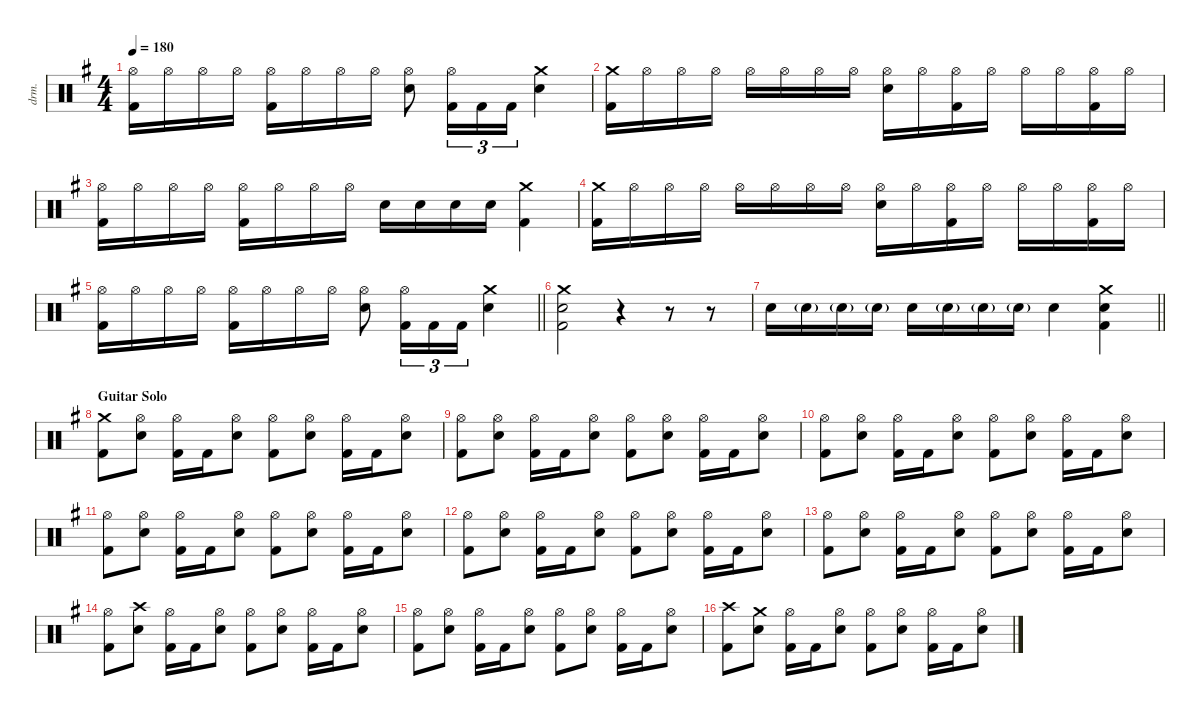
\defaultSystemsLayout 4
\hideDynamics
\bracketExtendMode nobrackets
\otherSystemsTrackNameOrientation horizontal
\track ("Lars Ulrich" "drm.") {instrument percussion}
\staff {score}
\articulation defaults
\ts (4 4)
\tempo 180
\clef neutral
\ks eminor
("Hi-Hat (open)"{acc forcenatural} "Kick (hit) 2"{acc forcenatural}).16{dy f beam Down} "Hi-Hat (open)"{acc forcenatural}.16{beam Down} "Hi-Hat (open)"{acc forcenatural}.16{beam Down} "Hi-Hat (open)"{acc forcenatural}.16{beam Down} ("Hi-Hat (open)"{acc forcenatural} "Kick (hit) 2"{acc forcenatural}).16{beam Down} "Hi-Hat (open)"{acc forcenatural}.16{beam Down} "Hi-Hat (open)"{acc forcenatural}.16{beam Down} "Hi-Hat (open)"{acc forcenatural}.16{beam Down} ("Hi-Hat (open)"{acc forcenatural} "Snare (hit) 2"{acc forcenatural}).8{beam Down} ("Hi-Hat (open)"{acc forcenatural} "Kick (hit) 2"{acc forcenatural}).16{tu (3 2) beam Down} "Kick (hit) 2"{acc forcenatural}.16{tu (3 2) beam Down} "Kick (hit) 2"{acc forcenatural}.16{tu (3 2) beam Down} ("Crash medium (hit)"{acc forcenatural} "Snare (hit) 2"{acc forcenatural}).4{beam Down} |
("Crash medium (hit)"{acc forcenatural} "Kick (hit) 2"{acc forcenatural}).16{beam Down} "Hi-Hat (open)"{acc forcenatural}.16{beam Down} "Hi-Hat (open)"{acc forcenatural}.16{beam Down} "Hi-Hat (open)"{acc forcenatural}.16{beam Down} "Hi-Hat (open)"{acc forcenatural}.16{beam Down} "Hi-Hat (open)"{acc forcenatural}.16{beam Down} "Hi-Hat (open)"{acc forcenatural}.16{beam Down} "Hi-Hat (open)"{acc forcenatural}.16{beam Down} ("Hi-Hat (open)"{acc forcenatural} "Snare (hit) 2"{acc forcenatural}).16{beam Down} "Hi-Hat (open)"{acc forcenatural}.16{beam Down} ("Hi-Hat (open)"{acc forcenatural} "Kick (hit) 2"{acc forcenatural}).16{beam Down} "Hi-Hat (open)"{acc forcenatural}.16{beam Down} "Hi-Hat (open)"{acc forcenatural}.16{beam Down} "Hi-Hat (open)"{acc forcenatural}.16{beam Down} ("Hi-Hat (open)"{acc forcenatural} "Kick (hit) 2"{acc forcenatural}).16{beam Down} "Hi-Hat (open)"{acc forcenatural}.16{beam Down} |
("Hi-Hat (open)"{acc forcenatural} "Kick (hit) 2"{acc forcenatural}).16{beam Down} "Hi-Hat (open)"{acc forcenatural}.16{beam Down} "Hi-Hat (open)"{acc forcenatural}.16{beam Down} "Hi-Hat (open)"{acc forcenatural}.16{beam Down} ("Hi-Hat (open)"{acc forcenatural} "Kick (hit) 2"{acc forcenatural}).16{beam Down} "Hi-Hat (open)"{acc forcenatural}.16{beam Down} "Hi-Hat (open)"{acc forcenatural}.16{beam Down} "Hi-Hat (open)"{acc forcenatural}.16{beam Down} "Snare (hit) 2"{acc forcenatural}.16{beam Down} "Snare (hit) 2"{acc forcenatural}.16{beam Down} "Snare (hit) 2"{acc forcenatural}.16{beam Down} "Snare (hit) 2"{acc forcenatural}.16{beam Down} ("Crash medium (hit)"{acc forcenatural} "Kick (hit) 2"{acc forcenatural}).4{beam Down} |
("Crash medium (hit)"{acc forcenatural} "Kick (hit) 2"{acc forcenatural}).16{beam Down} "Hi-Hat (open)"{acc forcenatural}.16{beam Down} "Hi-Hat (open)"{acc forcenatural}.16{beam Down} "Hi-Hat (open)"{acc forcenatural}.16{beam Down} "Hi-Hat (open)"{acc forcenatural}.16{beam Down} "Hi-Hat (open)"{acc forcenatural}.16{beam Down} "Hi-Hat (open)"{acc forcenatural}.16{beam Down} "Hi-Hat (open)"{acc forcenatural}.16{beam Down} ("Hi-Hat (open)"{acc forcenatural} "Snare (hit) 2"{acc forcenatural}).16{beam Down} "Hi-Hat (open)"{acc forcenatural}.16{beam Down} ("Hi-Hat (open)"{acc forcenatural} "Kick (hit) 2"{acc forcenatural}).16{beam Down} "Hi-Hat (open)"{acc forcenatural}.16{beam Down} "Hi-Hat (open)"{acc forcenatural}.16{beam Down} "Hi-Hat (open)"{acc forcenatural}.16{beam Down} ("Hi-Hat (open)"{acc forcenatural} "Kick (hit) 2"{acc forcenatural}).16{beam Down} "Hi-Hat (open)"{acc forcenatural}.16{beam Down} |
\barLineRight lightlight
("Hi-Hat (open)"{acc forcenatural} "Kick (hit) 2"{acc forcenatural}).16{beam Down} "Hi-Hat (open)"{acc forcenatural}.16{beam Down} "Hi-Hat (open)"{acc forcenatural}.16{beam Down} "Hi-Hat (open)"{acc forcenatural}.16{beam Down} ("Hi-Hat (open)"{acc forcenatural} "Kick (hit) 2"{acc forcenatural}).16{beam Down} "Hi-Hat (open)"{acc forcenatural}.16{beam Down} "Hi-Hat (open)"{acc forcenatural}.16{beam Down} "Hi-Hat (open)"{acc forcenatural}.16{beam Down} ("Hi-Hat (open)"{acc forcenatural} "Snare (hit) 2"{acc forcenatural}).8{beam Down} ("Hi-Hat (open)"{acc forcenatural} "Kick (hit) 2"{acc forcenatural}).16{tu (3 2) beam Down} "Kick (hit) 2"{acc forcenatural}.16{tu (3 2) beam Down} "Kick (hit) 2"{acc forcenatural}.16{tu (3 2) beam Down} ("Crash medium (hit)"{acc forcenatural} "Snare (hit) 2"{acc forcenatural}).4{beam Down} |
("Crash medium (hit)"{acc forcenatural} "Snare (hit) 2"{acc forcenatural} "Kick (hit) 2"{acc forcenatural}).2{beam Down} r.4{beam Down} r.8{beam Down} r.8{beam Down} |
\barLineRight lightlight "Snare (hit) 2"{acc forcenatural}.16{beam Down} "Snare (hit) 2"{g acc forcenatural}.16{dy ff beam Down} "Snare (hit) 2"{g acc forcenatural}.16{beam Down} "Snare (hit) 2"{g acc forcenatural}.16{beam Down} "Snare (hit) 2"{acc forcenatural}.16{dy f beam Down} "Snare (hit) 2"{g acc forcenatural}.16{dy ff beam Down} "Snare (hit) 2"{g acc forcenatural}.16{beam Down} "Snare (hit) 2"{g acc forcenatural}.16{beam Down} "Snare (hit) 2"{acc forcenatural}.4{dy f beam Down}
("Crash medium (hit)"{acc forcenatural} "Snare (hit) 2"{acc forcenatural} "Kick (hit) 2"{acc forcenatural}).4{beam Down} |
\section ("" "Guitar Solo")
("Crash medium (hit)"{acc forcenatural} "Kick (hit) 2"{acc forcenatural}).8{beam Down} ("Hi-Hat (open)"{acc forcenatural} "Snare (hit) 2"{acc forcenatural}).8{beam Down} ("Hi-Hat (open)"{acc forcenatural} "Kick (hit) 2"{acc forcenatural}).16{beam Down} "Kick (hit) 2"{acc forcenatural}.16{beam Down} ("Hi-Hat (open)"{acc forcenatural} "Snare (hit) 2"{acc forcenatural}).8{beam Down} ("Hi-Hat (open)"{acc forcenatural} "Kick (hit) 2"{acc forcenatural}).8{beam Down} ("Hi-Hat (open)"{acc forcenatural} "Snare (hit) 2"{acc forcenatural}).8{beam Down} ("Hi-Hat (open)"{acc forcenatural} "Kick (hit) 2"{acc forcenatural}).16{beam Down} "Kick (hit) 2"{acc forcenatural}.16{beam Down} ("Hi-Hat (open)"{acc forcenatural} "Snare (hit) 2"{acc forcenatural}).8{beam Down} |
("Hi-Hat (open)"{acc forcenatural} "Kick (hit) 2"{acc forcenatural}).8{beam Down} ("Hi-Hat (open)"{acc forcenatural} "Snare (hit) 2"{acc forcenatural}).8{beam Down} ("Hi-Hat (open)"{acc forcenatural} "Kick (hit) 2"{acc forcenatural}).16{beam Down} "Kick (hit) 2"{acc forcenatural}.16{beam Down} ("Hi-Hat (open)"{acc forcenatural} "Snare (hit) 2"{acc forcenatural}).8{beam Down} ("Hi-Hat (open)"{acc forcenatural} "Kick (hit) 2"{acc forcenatural}).8{beam Down} ("Hi-Hat (open)"{acc forcenatural} "Snare (hit) 2"{acc forcenatural}).8{beam Down} ("Hi-Hat (open)"{acc forcenatural} "Kick (hit) 2"{acc forcenatural}).16{beam Down} "Kick (hit) 2"{acc forcenatural}.16{beam Down} ("Hi-Hat (open)"{acc forcenatural} "Snare (hit) 2"{acc forcenatural}).8{beam Down} |
("Hi-Hat (open)"{acc forcenatural} "Kick (hit) 2"{acc forcenatural}).8{beam Down} ("Hi-Hat (open)"{acc forcenatural} "Snare (hit) 2"{acc forcenatural}).8{beam Down} ("Hi-Hat (open)"{acc forcenatural} "Kick (hit) 2"{acc forcenatural}).16{beam Down} "Kick (hit) 2"{acc forcenatural}.16{beam Down} ("Hi-Hat (open)"{acc forcenatural} "Snare (hit) 2"{acc forcenatural}).8{beam Down} ("Hi-Hat (open)"{acc forcenatural} "Kick (hit) 2"{acc forcenatural}).8{beam Down} ("Hi-Hat (open)"{acc forcenatural} "Snare (hit) 2"{acc forcenatural}).8{beam Down} ("Hi-Hat (open)"{acc forcenatural} "Kick (hit) 2"{acc forcenatural}).16{beam Down} "Kick (hit) 2"{acc forcenatural}.16{beam Down} ("Hi-Hat (open)"{acc forcenatural} "Snare (hit) 2"{acc forcenatural}).8{beam Down} |
("Hi-Hat (open)"{acc forcenatural} "Kick (hit) 2"{acc forcenatural}).8{beam Down} ("Hi-Hat (open)"{acc forcenatural} "Snare (hit) 2"{acc forcenatural}).8{beam Down} ("Hi-Hat (open)"{acc forcenatural} "Kick (hit) 2"{acc forcenatural}).16{beam Down} "Kick (hit) 2"{acc forcenatural}.16{beam Down} ("Hi-Hat (open)"{acc forcenatural} "Snare (hit) 2"{acc forcenatural}).8{beam Down} ("Hi-Hat (open)"{acc forcenatural} "Kick (hit) 2"{acc forcenatural}).8{beam Down} ("Hi-Hat (open)"{acc forcenatural} "Snare (hit) 2"{acc forcenatural}).8{beam Down} ("Hi-Hat (open)"{acc forcenatural} "Kick (hit) 2"{acc forcenatural}).16{beam Down} "Kick (hit) 2"{acc forcenatural}.16{beam Down} ("Hi-Hat (open)"{acc forcenatural} "Snare (hit) 2"{acc forcenatural}).8{beam Down} |
("Hi-Hat (open)"{acc forcenatural} "Kick (hit) 2"{acc forcenatural}).8{beam Down} ("Hi-Hat (open)"{acc forcenatural} "Snare (hit) 2"{acc forcenatural}).8{beam Down} ("Hi-Hat (open)"{acc forcenatural} "Kick (hit) 2"{acc forcenatural}).16{beam Down} "Kick (hit) 2"{acc forcenatural}.16{beam Down} ("Hi-Hat (open)"{acc forcenatural} "Snare (hit) 2"{acc forcenatural}).8{beam Down} ("Hi-Hat (open)"{acc forcenatural} "Kick (hit) 2"{acc forcenatural}).8{beam Down} ("Hi-Hat (open)"{acc forcenatural} "Snare (hit) 2"{acc forcenatural}).8{beam Down} ("Hi-Hat (open)"{acc forcenatural} "Kick (hit) 2"{acc forcenatural}).16{beam Down} "Kick (hit) 2"{acc forcenatural}.16{beam Down} ("Hi-Hat (open)"{acc forcenatural} "Snare (hit) 2"{acc forcenatural}).8{beam Down} |
("Hi-Hat (open)"{acc forcenatural} "Kick (hit) 2"{acc forcenatural}).8{beam Down} ("Hi-Hat (open)"{acc forcenatural} "Snare (hit) 2"{acc forcenatural}).8{beam Down} ("Hi-Hat (open)"{acc forcenatural} "Kick (hit) 2"{acc forcenatural}).16{beam Down} "Kick (hit) 2"{acc forcenatural}.16{beam Down} ("Hi-Hat (open)"{acc forcenatural} "Snare (hit) 2"{acc forcenatural}).8{beam Down} ("Hi-Hat (open)"{acc forcenatural} "Kick (hit) 2"{acc forcenatural}).8{beam Down} ("Hi-Hat (open)"{acc forcenatural} "Snare (hit) 2"{acc forcenatural}).8{beam Down} ("Hi-Hat (open)"{acc forcenatural} "Kick (hit) 2"{acc forcenatural}).16{beam Down} "Kick (hit) 2"{acc forcenatural}.16{beam Down} ("Hi-Hat (open)"{acc forcenatural} "Snare (hit) 2"{acc forcenatural}).8{beam Down} |
("Hi-Hat (open)"{acc forcenatural} "Kick (hit) 2"{acc forcenatural}).8{beam Down} ("Crash high (hit)"{acc forcenatural} "Snare (hit) 2"{acc forcenatural}).8{beam Down} ("Hi-Hat (open)"{acc forcenatural} "Kick (hit) 2"{acc forcenatural}).16{beam Down} "Kick (hit) 2"{acc forcenatural}.16{beam Down} ("Hi-Hat (open)"{acc forcenatural} "Snare (hit) 2"{acc forcenatural}).8{beam Down} ("Hi-Hat (open)"{acc forcenatural} "Kick (hit) 2"{acc forcenatural}).8{beam Down} ("Hi-Hat (open)"{acc forcenatural} "Snare (hit) 2"{acc forcenatural}).8{beam Down} ("Hi-Hat (open)"{acc forcenatural} "Kick (hit) 2"{acc forcenatural}).16{beam Down} "Kick (hit) 2"{acc forcenatural}.16{beam Down} ("Hi-Hat (open)"{acc forcenatural} "Snare (hit) 2"{acc forcenatural}).8{beam Down} |
("Hi-Hat (open)"{acc forcenatural} "Kick (hit) 2"{acc forcenatural}).8{beam Down} ("Hi-Hat (open)"{acc forcenatural} "Snare (hit) 2"{acc forcenatural}).8{beam Down} ("Hi-Hat (open)"{acc forcenatural} "Kick (hit) 2"{acc forcenatural}).16{beam Down} "Kick (hit) 2"{acc forcenatural}.16{beam Down} ("Hi-Hat (open)"{acc forcenatural} "Snare (hit) 2"{acc forcenatural}).8{beam Down} ("Hi-Hat (open)"{acc forcenatural} "Kick (hit) 2"{acc forcenatural}).8{beam Down} ("Hi-Hat (open)"{acc forcenatural} "Snare (hit) 2"{acc forcenatural}).8{beam Down} ("Hi-Hat (open)"{acc forcenatural} "Kick (hit) 2"{acc forcenatural}).16{beam Down} "Kick (hit) 2"{acc forcenatural}.16{beam Down} ("Hi-Hat (open)"{acc forcenatural} "Snare (hit) 2"{acc forcenatural}).8{beam Down} |
("Crash high (hit)"{acc forcenatural} "Kick (hit) 2"{acc forcenatural}).8{beam Down} ("Crash medium (hit)"{acc forcenatural} "Snare (hit) 2"{acc forcenatural}).8{beam Down} ("Hi-Hat (open)"{acc forcenatural} "Kick (hit) 2"{acc forcenatural}).16{beam Down} "Kick (hit) 2"{acc forcenatural}.16{beam Down} ("Hi-Hat (open)"{acc forcenatural} "Snare (hit) 2"{acc forcenatural}).8{beam Down} ("Hi-Hat (open)"{acc forcenatural} "Kick (hit) 2"{acc forcenatural}).8{beam Down} ("Hi-Hat (open)"{acc forcenatural} "Snare (hit) 2"{acc forcenatural}).8{beam Down} ("Hi-Hat (open)"{acc forcenatural} "Kick (hit) 2"{acc forcenatural}).16{beam Down} "Kick (hit) 2"{acc forcenatural}.16{beam Down} ("Hi-Hat (open)"{acc forcenatural} "Snare (hit) 2"{acc forcenatural}).8{beam Down}
